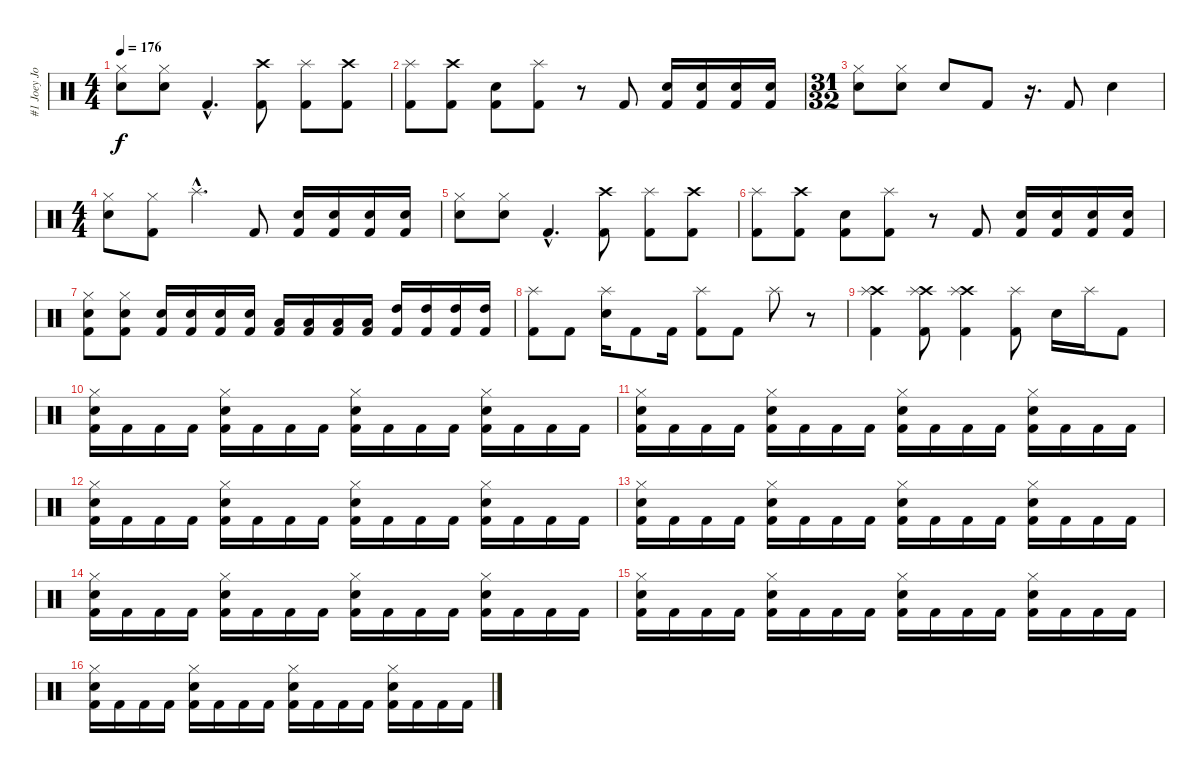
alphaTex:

\track ("#1 Joey Jordison - Drums" "#1 Joey Jo") {instrument percussion}
\staff {score}
\articulation defaults
\ts (4 4)
\tempo 176
\clef neutral
\ks c
("Hi-Hat (closed)" "Snare (hit) 2").8{dy f} ("Hi-Hat (closed)" "Snare (hit) 2").8 "Kick (hit) 2"{hac}.4{d} ("Crash high (hit)" "Kick (hit) 2").8 ("Splash (hit)" "Kick (hit) 2").8 ("Crash high (hit)" "Kick (hit) 2").8 |
("Splash (hit)" "Kick (hit) 2").8 ("Crash high (hit)" "Kick (hit) 2").8 ("Snare (hit) 2" "Kick (hit) 2").8 ("Splash (hit)" "Kick (hit) 2").8 r.8 "Kick (hit) 2".8 ("Snare (hit) 2" "Kick (hit) 2").16 ("Snare (hit) 2" "Kick (hit) 2").16 ("Snare (hit) 2" "Kick (hit) 2").16 ("Snare (hit) 2" "Kick (hit) 2").16 |
\ts (31 32)
("Hi-Hat (closed)" "Snare (hit) 2").8 ("Hi-Hat (closed)" "Snare (hit) 2").8 "Snare (hit) 2".8 "Kick (hit) 2".8 r.16{d} "Kick (hit) 2".8 "Snare (hit) 2".4 |
\ts (4 4)
("Hi-Hat (closed)" "Snare (hit) 2").8 ("Hi-Hat (closed)" "Kick (hit) 2").8 "Splash (hit)"{hac}.4{d} "Kick (hit) 2".8 ("Snare (hit) 2" "Kick (hit) 2").16 ("Snare (hit) 2" "Kick (hit) 2").16 ("Snare (hit) 2" "Kick (hit) 2").16 ("Snare (hit) 2" "Kick (hit) 2").16 |
("Hi-Hat (closed)" "Snare (hit) 2").8 ("Hi-Hat (closed)" "Snare (hit) 2").8 "Kick (hit) 2"{hac}.4{d} ("Crash high (hit)" "Kick (hit) 2").8 ("Splash (hit)" "Kick (hit) 2").8 ("Crash high (hit)" "Kick (hit) 2").8 |
("Splash (hit)" "Kick (hit) 2").8 ("Crash high (hit)" "Kick (hit) 2").8 ("Snare (hit) 2" "Kick (hit) 2").8 ("Splash (hit)" "Kick (hit) 2").8 r.8 "Kick (hit) 2".8 ("Snare (hit) 2" "Kick (hit) 2").16 ("Snare (hit) 2" "Kick (hit) 2").16 ("Snare (hit) 2" "Kick (hit) 2").16 ("Snare (hit) 2" "Kick (hit) 2").16 |
("Hi-Hat (closed)" "Snare (hit) 2" "Kick (hit) 2").8 ("Hi-Hat (closed)" "Snare (hit) 2" "Kick (hit) 2").8 ("Snare (hit) 2" "Kick (hit) 2").16 ("Snare (hit) 2" "Kick (hit) 2").16 ("Snare (hit) 2" "Kick (hit) 2").16 ("Snare (hit) 2" "Kick (hit) 2").16 ("Low Tom (hit)" "Kick (hit) 2").16 ("Low Tom (hit)" "Kick (hit) 2").16 ("Low Tom (hit)" "Kick (hit) 2").16 ("Low Tom (hit)" "Kick (hit) 2").16 ("High Tom (hit)" "Kick (hit) 2").16 ("High Tom (hit)" "Kick (hit) 2").16 ("High Tom (hit)" "Kick (hit) 2").16 ("High Tom (hit)" "Kick (hit) 2").16 |
("Splash (hit)" "Kick (hit) 2").8 "Kick (hit) 2".8 ("Splash (hit)" "Snare (hit) 2").16 "Kick (hit) 2".8 "Kick (hit) 2".16 ("Splash (hit)" "Kick (hit) 2").8 "Kick (hit) 2".8 "Splash (hit)".8 r.8 |
("Kick (hit) 2" "Crash high (hit)" "Splash (hit)").4 ("Kick (hit) 2" "Crash high (hit)" "Splash (hit)").8 ("Crash high (hit)" "Splash (hit)" "Kick (hit) 2").4 ("Splash (hit)" "Kick (hit) 2").8 "Snare (hit) 2".16 "Splash (hit)".16 "Kick (hit) 2".8 |
("Hi-Hat (closed)" "Snare (hit) 2" "Kick (hit) 2").16 "Kick (hit) 2".16 "Kick (hit) 2".16 "Kick (hit) 2".16 ("Hi-Hat (closed)" "Snare (hit) 2" "Kick (hit) 2").16 "Kick (hit) 2".16 "Kick (hit) 2".16 "Kick (hit) 2".16 ("Hi-Hat (closed)" "Snare (hit) 2" "Kick (hit) 2").16 "Kick (hit) 2".16 "Kick (hit) 2".16 "Kick (hit) 2".16 ("Hi-Hat (closed)" "Snare (hit) 2" "Kick (hit) 2").16 "Kick (hit) 2".16 "Kick (hit) 2".16 "Kick (hit) 2".16 |
("Hi-Hat (closed)" "Snare (hit) 2" "Kick (hit) 2").16 "Kick (hit) 2".16 "Kick (hit) 2".16 "Kick (hit) 2".16 ("Hi-Hat (closed)" "Snare (hit) 2" "Kick (hit) 2").16 "Kick (hit) 2".16 "Kick (hit) 2".16 "Kick (hit) 2".16 ("Hi-Hat (closed)" "Snare (hit) 2" "Kick (hit) 2").16 "Kick (hit) 2".16 "Kick (hit) 2".16 "Kick (hit) 2".16 ("Hi-Hat (closed)" "Snare (hit) 2" "Kick (hit) 2").16 "Kick (hit) 2".16 "Kick (hit) 2".16 "Kick (hit) 2".16 |
("Hi-Hat (closed)" "Snare (hit) 2" "Kick (hit) 2").16 "Kick (hit) 2".16 "Kick (hit) 2".16 "Kick (hit) 2".16 ("Hi-Hat (closed)" "Snare (hit) 2" "Kick (hit) 2").16 "Kick (hit) 2".16 "Kick (hit) 2".16 "Kick (hit) 2".16 ("Hi-Hat (closed)" "Snare (hit) 2" "Kick (hit) 2").16 "Kick (hit) 2".16 "Kick (hit) 2".16 "Kick (hit) 2".16 ("Hi-Hat (closed)" "Snare (hit) 2" "Kick (hit) 2").16 "Kick (hit) 2".16 "Kick (hit) 2".16 "Kick (hit) 2".16 |
("Hi-Hat (closed)" "Snare (hit) 2" "Kick (hit) 2").16 "Kick (hit) 2".16 "Kick (hit) 2".16 "Kick (hit) 2".16 ("Hi-Hat (closed)" "Snare (hit) 2" "Kick (hit) 2").16 "Kick (hit) 2".16 "Kick (hit) 2".16 "Kick (hit) 2".16 ("Hi-Hat (closed)" "Snare (hit) 2" "Kick (hit) 2").16 "Kick (hit) 2".16 "Kick (hit) 2".16 "Kick (hit) 2".16 ("Hi-Hat (closed)" "Snare (hit) 2" "Kick (hit) 2").16 "Kick (hit) 2".16 "Kick (hit) 2".16 "Kick (hit) 2".16 |
("Hi-Hat (closed)" "Snare (hit) 2" "Kick (hit) 2").16 "Kick (hit) 2".16 "Kick (hit) 2".16 "Kick (hit) 2".16 ("Hi-Hat (closed)" "Snare (hit) 2" "Kick (hit) 2").16 "Kick (hit) 2".16 "Kick (hit) 2".16 "Kick (hit) 2".16 ("Hi-Hat (closed)" "Snare (hit) 2" "Kick (hit) 2").16 "Kick (hit) 2".16 "Kick (hit) 2".16 "Kick (hit) 2".16 ("Hi-Hat (closed)" "Snare (hit) 2" "Kick (hit) 2").16 "Kick (hit) 2".16 "Kick (hit) 2".16 "Kick (hit) 2".16 |
("Hi-Hat (closed)" "Snare (hit) 2" "Kick (hit) 2").16 "Kick (hit) 2".16 "Kick (hit) 2".16 "Kick (hit) 2".16 ("Hi-Hat (closed)" "Snare (hit) 2" "Kick (hit) 2").16 "Kick (hit) 2".16 "Kick (hit) 2".16 "Kick (hit) 2".16 ("Hi-Hat (closed)" "Snare (hit) 2" "Kick (hit) 2").16 "Kick (hit) 2".16 "Kick (hit) 2".16 "Kick (hit) 2".16 ("Hi-Hat (closed)" "Snare (hit) 2" "Kick (hit) 2").16 "Kick (hit) 2".16 "Kick (hit) 2".16 "Kick (hit) 2".16 |
("Hi-Hat (closed)" "Snare (hit) 2" "Kick (hit) 2").16 "Kick (hit) 2".16 "Kick (hit) 2".16 "Kick (hit) 2".16 ("Hi-Hat (closed)" "Snare (hit) 2" "Kick (hit) 2").16 "Kick (hit) 2".16 "Kick (hit) 2".16 "Kick (hit) 2".16 ("Hi-Hat (closed)" "Snare (hit) 2" "Kick (hit) 2").16 "Kick (hit) 2".16 "Kick (hit) 2".16 "Kick (hit) 2".16 ("Hi-Hat (closed)" "Snare (hit) 2" "Kick (hit) 2").16 "Kick (hit) 2".16 "Kick (hit) 2".16 "Kick (hit) 2".16
